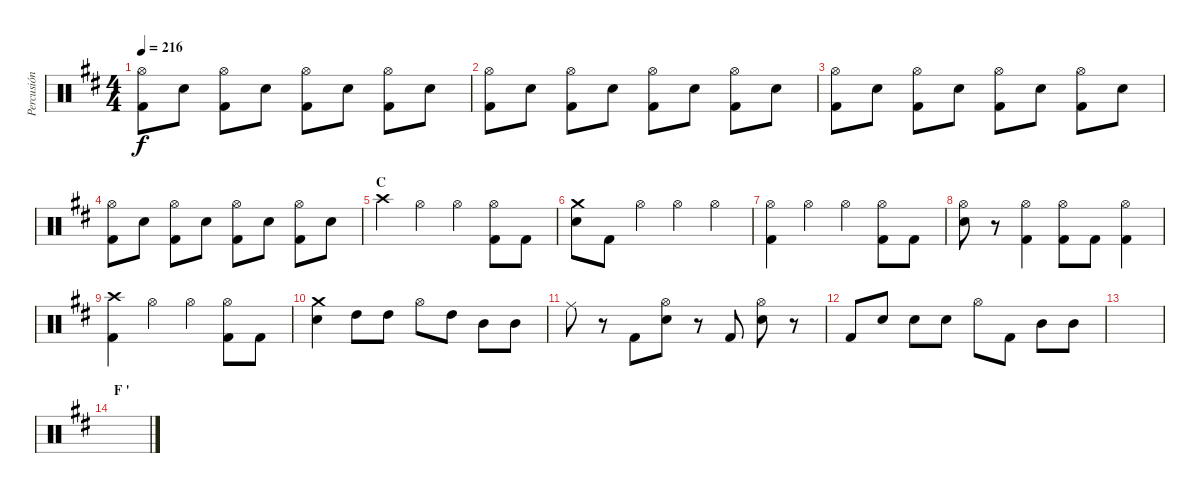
\track ("Percusión" "Percusión") {instrument percussion}
\staff {score}
\articulation defaults
\ts (4 4)
\tempo 216
\clef neutral
\ks d
("Hi-Hat (open)" "Kick (hit) 2").8{dy f} "Electric Snare (hit)".8 ("Hi-Hat (open)" "Kick (hit) 2").8 "Electric Snare (hit)".8 ("Hi-Hat (open)" "Kick (hit) 2").8 "Electric Snare (hit)".8 ("Hi-Hat (open)" "Kick (hit) 2").8 "Electric Snare (hit)".8 |
("Hi-Hat (open)" "Kick (hit) 2").8 "Electric Snare (hit)".8 ("Hi-Hat (open)" "Kick (hit) 2").8 "Electric Snare (hit)".8 ("Hi-Hat (open)" "Kick (hit) 2").8 "Electric Snare (hit)".8 ("Hi-Hat (open)" "Kick (hit) 2").8 "Electric Snare (hit)".8 |
("Hi-Hat (open)" "Kick (hit) 2").8 "Electric Snare (hit)".8 ("Hi-Hat (open)" "Kick (hit) 2").8 "Electric Snare (hit)".8 ("Hi-Hat (open)" "Kick (hit) 2").8 "Electric Snare (hit)".8 ("Hi-Hat (open)" "Kick (hit) 2").8 "Electric Snare (hit)".8 |
("Hi-Hat (open)" "Kick (hit) 2").8 "Electric Snare (hit)".8 ("Hi-Hat (open)" "Kick (hit) 2").8 "Electric Snare (hit)".8 ("Hi-Hat (open)" "Kick (hit) 2").8 "Electric Snare (hit)".8 ("Hi-Hat (open)" "Kick (hit) 2").8 "Electric Snare (hit)".8 |
\section ("" "C")
"Crash high (hit)".4 "Hi-Hat (open)".4 "Hi-Hat (open)".4 ("Hi-Hat (open)" "Kick (hit) 2").8 "Kick (hit) 2".8 |
("Crash medium (hit)" "Electric Snare (hit)").8 "Kick (hit) 2".8 "Hi-Hat (open)".4 "Hi-Hat (open)".4 "Hi-Hat (open)".4 |
("Hi-Hat (open)" "Kick (hit) 2").4 "Hi-Hat (open)".4 "Hi-Hat (open)".4 ("Hi-Hat (open)" "Kick (hit) 2").8 "Kick (hit) 2".8 |
("Hi-Hat (open)" "Electric Snare (hit)").8 r.8 ("Hi-Hat (open)" "Kick (hit) 2").4 ("Hi-Hat (open)" "Kick (hit) 2").8 "Kick (hit) 2".8 ("Hi-Hat (open)" "Kick (hit) 2").4 |
("Crash high (hit)" "Kick (hit) 2").4 "Hi-Hat (open)".4 "Hi-Hat (open)".4 ("Hi-Hat (open)" "Kick (hit) 2").8 "Kick (hit) 2".8 |
("Crash medium (hit)" "Electric Snare (hit)").4 "High Tom (hit)".8 "High Tom (hit)".8 "Hi-Hat (open)".8 "High Tom (hit)".8 "Mid Tom (hit)".8 "Mid Tom (hit)".8 |
"Ride (middle)".8 r.8 "Kick (hit) 2".8 ("Hi-Hat (open)" "Electric Snare (hit)").8 r.8 "Kick (hit) 2".8 ("Hi-Hat (open)" "Electric Snare (hit)").8 r.8 |
"Kick (hit) 2".8 "Electric Snare (hit)".8 "Electric Snare (hit)".8 "Electric Snare (hit)".8 "Hi-Hat (open)".8 "Kick (hit) 2".8 "Mid Tom (hit)".8 "Mid Tom (hit)".8 |
|
\section ("" "F '")
